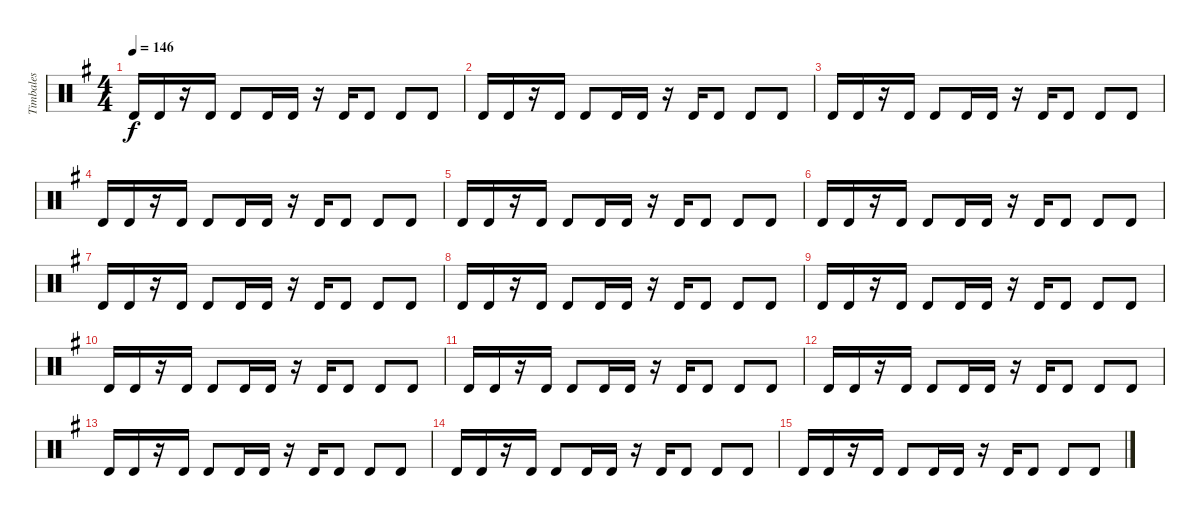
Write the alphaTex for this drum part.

\track ("Timbales" "Timbales") {instrument percussion}
\staff {score}
\articulation defaults
\ts (4 4)
\tempo 146
\clef neutral
\ks g "Timbale high (hit)".16{dy f} "Timbale high (hit)".16
r.16 "Timbale high (hit)".16 "Timbale high (hit)".8 "Timbale high (hit)".16 "Timbale high (hit)".16 r.16 "Timbale high (hit)".16 "Timbale high (hit)".8 "Timbale high (hit)".8 "Timbale high (hit)".8 |
"Timbale high (hit)".16 "Timbale high (hit)".16 r.16 "Timbale high (hit)".16 "Timbale high (hit)".8 "Timbale high (hit)".16 "Timbale high (hit)".16 r.16 "Timbale high (hit)".16 "Timbale high (hit)".8 "Timbale high (hit)".8 "Timbale high (hit)".8 |
"Timbale high (hit)".16 "Timbale high (hit)".16 r.16 "Timbale high (hit)".16 "Timbale high (hit)".8 "Timbale high (hit)".16 "Timbale high (hit)".16 r.16 "Timbale high (hit)".16 "Timbale high (hit)".8 "Timbale high (hit)".8 "Timbale high (hit)".8 |
"Timbale high (hit)".16 "Timbale high (hit)".16 r.16 "Timbale high (hit)".16 "Timbale high (hit)".8 "Timbale high (hit)".16 "Timbale high (hit)".16 r.16 "Timbale high (hit)".16 "Timbale high (hit)".8 "Timbale high (hit)".8 "Timbale high (hit)".8 |
"Timbale high (hit)".16 "Timbale high (hit)".16 r.16 "Timbale high (hit)".16 "Timbale high (hit)".8 "Timbale high (hit)".16 "Timbale high (hit)".16 r.16 "Timbale high (hit)".16 "Timbale high (hit)".8 "Timbale high (hit)".8 "Timbale high (hit)".8 |
"Timbale high (hit)".16 "Timbale high (hit)".16 r.16 "Timbale high (hit)".16 "Timbale high (hit)".8 "Timbale high (hit)".16 "Timbale high (hit)".16 r.16 "Timbale high (hit)".16 "Timbale high (hit)".8 "Timbale high (hit)".8 "Timbale high (hit)".8 |
"Timbale high (hit)".16 "Timbale high (hit)".16 r.16 "Timbale high (hit)".16 "Timbale high (hit)".8 "Timbale high (hit)".16 "Timbale high (hit)".16 r.16 "Timbale high (hit)".16 "Timbale high (hit)".8 "Timbale high (hit)".8 "Timbale high (hit)".8 |
"Timbale high (hit)".16 "Timbale high (hit)".16 r.16 "Timbale high (hit)".16 "Timbale high (hit)".8 "Timbale high (hit)".16 "Timbale high (hit)".16 r.16 "Timbale high (hit)".16 "Timbale high (hit)".8 "Timbale high (hit)".8 "Timbale high (hit)".8 |
"Timbale high (hit)".16 "Timbale high (hit)".16 r.16 "Timbale high (hit)".16 "Timbale high (hit)".8 "Timbale high (hit)".16 "Timbale high (hit)".16 r.16 "Timbale high (hit)".16 "Timbale high (hit)".8 "Timbale high (hit)".8 "Timbale high (hit)".8 |
"Timbale high (hit)".16 "Timbale high (hit)".16 r.16 "Timbale high (hit)".16 "Timbale high (hit)".8 "Timbale high (hit)".16 "Timbale high (hit)".16 r.16 "Timbale high (hit)".16 "Timbale high (hit)".8 "Timbale high (hit)".8 "Timbale high (hit)".8 |
"Timbale high (hit)".16 "Timbale high (hit)".16 r.16 "Timbale high (hit)".16 "Timbale high (hit)".8 "Timbale high (hit)".16 "Timbale high (hit)".16 r.16 "Timbale high (hit)".16 "Timbale high (hit)".8 "Timbale high (hit)".8 "Timbale high (hit)".8 |
"Timbale high (hit)".16 "Timbale high (hit)".16 r.16 "Timbale high (hit)".16 "Timbale high (hit)".8 "Timbale high (hit)".16 "Timbale high (hit)".16 r.16 "Timbale high (hit)".16 "Timbale high (hit)".8 "Timbale high (hit)".8 "Timbale high (hit)".8 |
"Timbale high (hit)".16 "Timbale high (hit)".16 r.16 "Timbale high (hit)".16 "Timbale high (hit)".8 "Timbale high (hit)".16 "Timbale high (hit)".16 r.16 "Timbale high (hit)".16 "Timbale high (hit)".8 "Timbale high (hit)".8 "Timbale high (hit)".8 |
"Timbale high (hit)".16 "Timbale high (hit)".16 r.16 "Timbale high (hit)".16 "Timbale high (hit)".8 "Timbale high (hit)".16 "Timbale high (hit)".16 r.16 "Timbale high (hit)".16 "Timbale high (hit)".8 "Timbale high (hit)".8 "Timbale high (hit)".8 |
"Timbale high (hit)".16 "Timbale high (hit)".16 r.16 "Timbale high (hit)".16 "Timbale high (hit)".8 "Timbale high (hit)".16 "Timbale high (hit)".16 r.16 "Timbale high (hit)".16 "Timbale high (hit)".8 "Timbale high (hit)".8 "Timbale high (hit)".8
